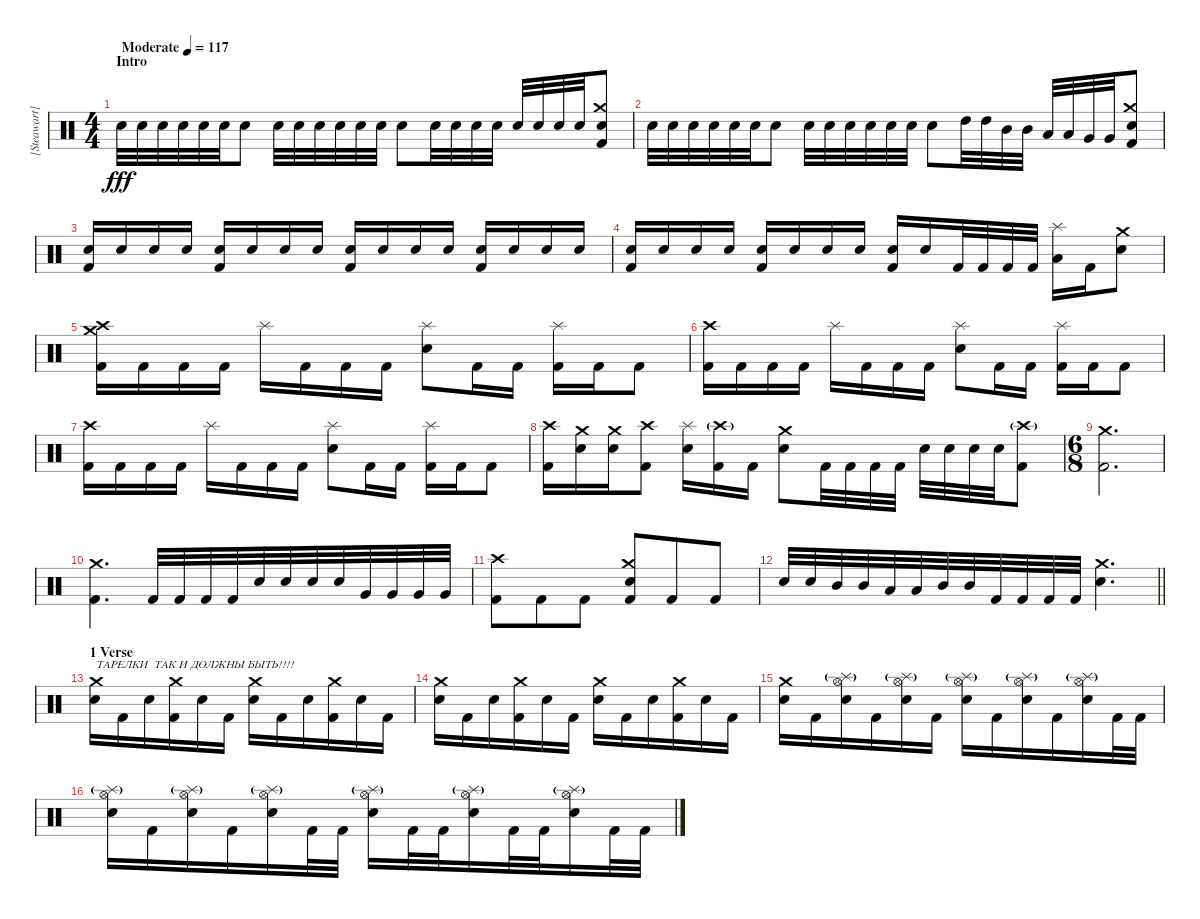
\track ("[Steawart] Drums" "[Steawart]") {instrument percussion}
\staff {score}
\articulation defaults
\ts (4 4)
\section ("" "Intro ")
\tempo (117 "Moderate")
\clef neutral
\ks c "Electric Snare (hit)".32{dy fff} "Electric Snare (hit)".32 "Electric Snare (hit)".32 "Electric Snare (hit)".32 "Electric Snare (hit)".32 "Electric Snare (hit)".32 "Electric Snare (hit)".8 "Electric Snare (hit)".32 "Electric Snare (hit)".32 "Electric Snare (hit)".32 "Electric Snare (hit)".32 "Electric Snare (hit)".32 "Electric Snare (hit)".32 "Electric Snare (hit)".8 "Electric Snare (hit)".32 "Electric Snare (hit)".32 "Electric Snare (hit)".32 "Electric Snare (hit)".32 "Electric Snare (hit)".32 "Electric Snare (hit)".32 "Electric Snare (hit)".32 "Electric Snare (hit)".32
("Crash medium (hit)" "Electric Snare (hit)" "Kick (hit) 2").8 |
"Electric Snare (hit)".32 "Electric Snare (hit)".32 "Electric Snare (hit)".32 "Electric Snare (hit)".32 "Electric Snare (hit)".32 "Electric Snare (hit)".32 "Electric Snare (hit)".8 "Electric Snare (hit)".32 "Electric Snare (hit)".32 "Electric Snare (hit)".32 "Electric Snare (hit)".32 "Electric Snare (hit)".32 "Electric Snare (hit)".32 "Electric Snare (hit)".8 "High Tom (hit)".32 "High Tom (hit)".32 "Mid Tom (hit)".32 "Mid Tom (hit)".32 "Low Tom (hit)".32 "Low Tom (hit)".32 "Very Low Tom (hit)".32 "Very Low Tom (hit)".32 ("Crash medium (hit)" "Electric Snare (hit)" "Kick (hit) 2").8 |
("Electric Snare (hit)" "Kick (hit) 2").16 "Electric Snare (hit)".16 "Electric Snare (hit)".16 "Electric Snare (hit)".16 ("Electric Snare (hit)" "Kick (hit) 2").16 "Electric Snare (hit)".16 "Electric Snare (hit)".16 "Electric Snare (hit)".16 ("Electric Snare (hit)" "Kick (hit) 2").16 "Electric Snare (hit)".16 "Electric Snare (hit)".16 "Electric Snare (hit)".16 ("Electric Snare (hit)" "Kick (hit) 2").16 "Electric Snare (hit)".16 "Electric Snare (hit)".16 "Electric Snare (hit)".16 |
("Electric Snare (hit)" "Kick (hit) 2").16 "Electric Snare (hit)".16 "Electric Snare (hit)".16 "Electric Snare (hit)".16 ("Electric Snare (hit)" "Kick (hit) 2").16 "Electric Snare (hit)".16 "Electric Snare (hit)".16 "Electric Snare (hit)".16 ("Electric Snare (hit)" "Kick (hit) 2").16 "Electric Snare (hit)".16 "Kick (hit) 2".32 "Kick (hit) 2".32 "Kick (hit) 2".32 "Kick (hit) 2".32 ("Splash (hit)" "Low Tom (hit)").16 "Kick (hit) 2".16 ("Crash medium (hit)" "Electric Snare (hit)").8 |
("Crash medium (hit)" "Crash high (hit)" "Kick (hit) 2").16 "Kick (hit) 2".16 "Kick (hit) 2".16 "Kick (hit) 2".16 "Splash (hit)".16 "Kick (hit) 2".16 "Kick (hit) 2".16 "Kick (hit) 2".16 ("Splash (hit)" "Electric Snare (hit)").8 "Kick (hit) 2".16 "Kick (hit) 2".16 ("Splash (hit)" "Kick (hit) 2").16 "Kick (hit) 2".16 "Kick (hit) 2".8 |
("Crash high (hit)" "Kick (hit) 2").16 "Kick (hit) 2".16 "Kick (hit) 2".16 "Kick (hit) 2".16 "Splash (hit)".16 "Kick (hit) 2".16 "Kick (hit) 2".16 "Kick (hit) 2".16 ("Splash (hit)" "Electric Snare (hit)").8 "Kick (hit) 2".16 "Kick (hit) 2".16 ("Splash (hit)" "Kick (hit) 2").16 "Kick (hit) 2".16 "Kick (hit) 2".8 |
("Crash high (hit)" "Kick (hit) 2").16 "Kick (hit) 2".16 "Kick (hit) 2".16 "Kick (hit) 2".16 "Splash (hit)".16 "Kick (hit) 2".16 "Kick (hit) 2".16 "Kick (hit) 2".16 ("Splash (hit)" "Electric Snare (hit)").8 "Kick (hit) 2".16 "Kick (hit) 2".16 ("Splash (hit)" "Kick (hit) 2").16 "Kick (hit) 2".16 "Kick (hit) 2".8 |
("Crash high (hit)" "Kick (hit) 2").16 ("Crash medium (hit)" "Electric Snare (hit)").16 ("Crash medium (hit)" "Electric Snare (hit)").16 ("Crash high (hit)" "Kick (hit) 2").8 ("Splash (hit)" "Electric Snare (hit)").16 ("Crash high (hit)"{g} "Kick (hit) 2").16 "Kick (hit) 2".16 ("Crash medium (hit)" "Electric Snare (hit)").8 "Kick (hit) 2".32 "Kick (hit) 2".32 "Kick (hit) 2".32 "Kick (hit) 2".32 "Electric Snare (hit)".32 "Electric Snare (hit)".32 "Electric Snare (hit)".32 "Electric Snare (hit)".32 ("Crash high (hit)"{g} "Kick (hit) 2").8 |
\ts (6 8)
("Crash medium (hit)" "Kick (hit) 2").2{d} |
("Crash medium (hit)" "Kick (hit) 2").4{d} "Kick (hit) 2".32 "Kick (hit) 2".32 "Kick (hit) 2".32 "Kick (hit) 2".32 "Electric Snare (hit)".32 "Electric Snare (hit)".32 "Electric Snare (hit)".32 "Electric Snare (hit)".32 "Very Low Tom (hit)".32 "Very Low Tom (hit)".32 "Very Low Tom (hit)".32 "Very Low Tom (hit)".32 |
("Crash high (hit)" "Kick (hit) 2").8 "Kick (hit) 2".8 "Kick (hit) 2".8 ("Crash medium (hit)" "Electric Snare (hit)" "Kick (hit) 2").8 "Kick (hit) 2".8 "Kick (hit) 2".8 |
\barLineRight lightlight "Electric Snare (hit)".32 "Electric Snare (hit)".32 "Mid Tom (hit)".32 "Mid Tom (hit)".32 "Low Tom (hit)".32 "Low Tom (hit)".32 "Mid Tom (hit)".32 "Mid Tom (hit)".32 "Kick (hit) 2".32 "Kick (hit) 2".32 "Kick (hit) 2".32 "Kick (hit) 2".32
("Crash medium (hit)" "Electric Snare (hit)").4{d} |
\section ("" "1 Verse ")
("Crash medium (hit)" "Electric Snare (hit)").16{txt "ТАРЕЛКИ  ТАК И ДОЛЖНЫ БЫТЬ!!!!"} "Kick (hit) 2".16 "Electric Snare (hit)".16 ("Crash medium (hit)" "Kick (hit) 2").16 "Electric Snare (hit)".16 "Kick (hit) 2".16 ("Crash medium (hit)" "Electric Snare (hit)").16 "Kick (hit) 2".16 "Electric Snare (hit)".16 ("Crash medium (hit)" "Kick (hit) 2").16 "Electric Snare (hit)".16 "Kick (hit) 2".16 |
("Crash medium (hit)" "Electric Snare (hit)").16 "Kick (hit) 2".16 "Electric Snare (hit)".16 ("Crash medium (hit)" "Kick (hit) 2").16 "Electric Snare (hit)".16 "Kick (hit) 2".16 ("Crash medium (hit)" "Electric Snare (hit)").16 "Kick (hit) 2".16 "Electric Snare (hit)".16 ("Crash medium (hit)" "Kick (hit) 2").16 "Electric Snare (hit)".16 "Kick (hit) 2".16 |
("Crash medium (hit)" "Electric Snare (hit)").16 "Kick (hit) 2".16 ("Hi-Hat (open)" "Splash (hit)"{g} "Electric Snare (hit)").16 "Kick (hit) 2".16 ("Hi-Hat (open)" "Splash (hit)"{g} "Electric Snare (hit)").16 "Kick (hit) 2".16 ("Hi-Hat (open)" "Splash (hit)"{g} "Electric Snare (hit)").16 "Kick (hit) 2".16 ("Hi-Hat (open)" "Splash (hit)"{g} "Electric Snare (hit)").16 "Kick (hit) 2".16 ("Hi-Hat (open)" "Splash (hit)"{g} "Electric Snare (hit)").16 "Kick (hit) 2".32 "Kick (hit) 2".32 |
("Hi-Hat (open)" "Splash (hit)"{g} "Electric Snare (hit)").16 "Kick (hit) 2".16 ("Hi-Hat (open)" "Splash (hit)"{g} "Electric Snare (hit)").16 "Kick (hit) 2".16 ("Hi-Hat (open)" "Splash (hit)"{g} "Electric Snare (hit)").16 "Kick (hit) 2".32 "Kick (hit) 2".32 ("Hi-Hat (open)" "Splash (hit)"{g} "Electric Snare (hit)").16 "Kick (hit) 2".32 "Kick (hit) 2".32 ("Hi-Hat (open)" "Splash (hit)"{g} "Electric Snare (hit)").16 "Kick (hit) 2".32 "Kick (hit) 2".32 ("Hi-Hat (open)" "Splash (hit)"{g} "Electric Snare (hit)").16 "Kick (hit) 2".32 "Kick (hit) 2".32
